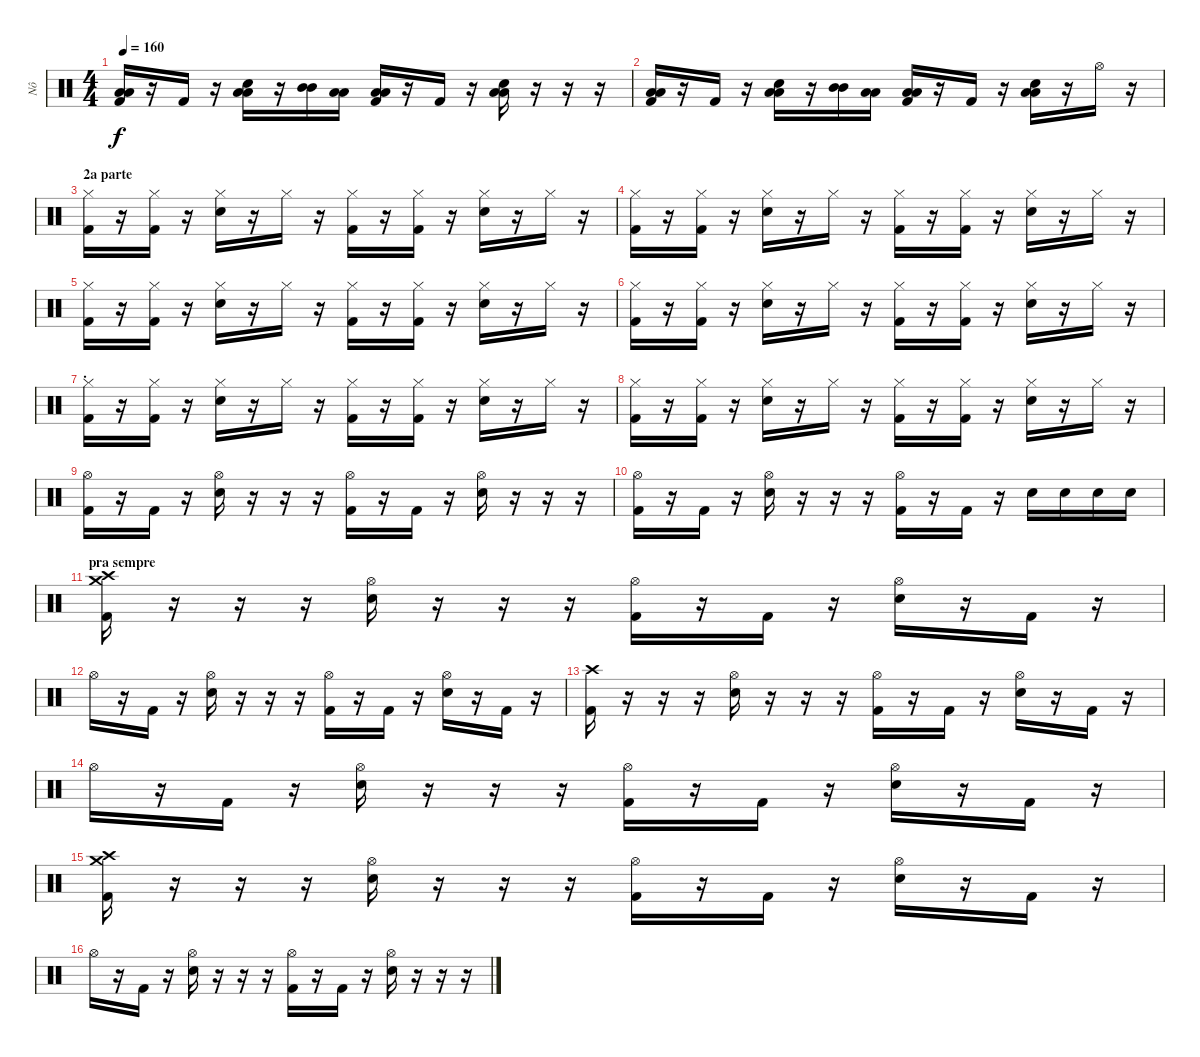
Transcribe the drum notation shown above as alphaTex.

\track ("Nô" "Nô") {instrument percussion}
\staff {score}
\articulation defaults
\ts (4 4)
\tempo 160
\clef neutral
\ks c
("Low Tom (hit)" "Low Tom (hit)" "Kick (hit) 2").16{dy f} r.16 "Kick (hit) 2".16 r.16 ("Low Tom (hit)" "Low Tom (hit)" "Electric Snare (hit)").16 r.16 ("Mid Tom (hit)" "Mid Tom (hit)").16 ("Low Tom (hit)" "Low Tom (hit)").16 ("Low Tom (hit)" "Low Tom (hit)" "Kick (hit) 2").16 r.16 "Kick (hit) 2".16 r.16 ("Low Tom (hit)" "Low Tom (hit)" "Electric Snare (hit)").16 r.16 r.16 r.16 |
("Low Tom (hit)" "Low Tom (hit)" "Kick (hit) 2").16 r.16 "Kick (hit) 2".16 r.16 ("Low Tom (hit)" "Low Tom (hit)" "Electric Snare (hit)").16 r.16 ("Mid Tom (hit)" "Mid Tom (hit)").16 ("Low Tom (hit)" "Low Tom (hit)").16 ("Low Tom (hit)" "Low Tom (hit)" "Kick (hit) 2").16 r.16 "Kick (hit) 2".16 r.16 ("Low Tom (hit)" "Low Tom (hit)" "Electric Snare (hit)").16 r.16 "Hi-Hat (open)".16 r.16 |
\section ("" "2a parte")
("Hi-Hat (closed)" "Kick (hit) 2").16 r.16 ("Hi-Hat (closed)" "Kick (hit) 2").16 r.16 ("Hi-Hat (closed)" "Electric Snare (hit)").16 r.16 "Hi-Hat (closed)".16 r.16 ("Hi-Hat (closed)" "Kick (hit) 2").16 r.16 ("Hi-Hat (closed)" "Kick (hit) 2").16 r.16 ("Hi-Hat (closed)" "Electric Snare (hit)").16 r.16 "Hi-Hat (closed)".16 r.16 |
("Hi-Hat (closed)" "Kick (hit) 2").16 r.16 ("Hi-Hat (closed)" "Kick (hit) 2").16 r.16 ("Hi-Hat (closed)" "Electric Snare (hit)").16 r.16 "Hi-Hat (closed)".16 r.16 ("Hi-Hat (closed)" "Kick (hit) 2").16 r.16 ("Hi-Hat (closed)" "Kick (hit) 2").16 r.16 ("Hi-Hat (closed)" "Electric Snare (hit)").16 r.16 "Hi-Hat (closed)".16 r.16 |
("Hi-Hat (closed)" "Kick (hit) 2").16 r.16 ("Hi-Hat (closed)" "Kick (hit) 2").16 r.16 ("Hi-Hat (closed)" "Electric Snare (hit)").16 r.16 "Hi-Hat (closed)".16 r.16 ("Hi-Hat (closed)" "Kick (hit) 2").16 r.16 ("Hi-Hat (closed)" "Kick (hit) 2").16 r.16 ("Hi-Hat (closed)" "Electric Snare (hit)").16 r.16 "Hi-Hat (closed)".16 r.16 |
("Hi-Hat (closed)" "Kick (hit) 2").16 r.16 ("Hi-Hat (closed)" "Kick (hit) 2").16 r.16 ("Hi-Hat (closed)" "Electric Snare (hit)").16 r.16 "Hi-Hat (closed)".16 r.16 ("Hi-Hat (closed)" "Kick (hit) 2").16 r.16 ("Hi-Hat (closed)" "Kick (hit) 2").16 r.16 ("Hi-Hat (closed)" "Electric Snare (hit)").16 r.16 "Hi-Hat (closed)".16 r.16 |
\section ("" ".")
("Hi-Hat (closed)" "Kick (hit) 2").16 r.16 ("Hi-Hat (closed)" "Kick (hit) 2").16 r.16 ("Hi-Hat (closed)" "Electric Snare (hit)").16 r.16 "Hi-Hat (closed)".16 r.16 ("Hi-Hat (closed)" "Kick (hit) 2").16 r.16 ("Hi-Hat (closed)" "Kick (hit) 2").16 r.16 ("Hi-Hat (closed)" "Electric Snare (hit)").16 r.16 "Hi-Hat (closed)".16 r.16 |
("Hi-Hat (closed)" "Kick (hit) 2").16 r.16 ("Hi-Hat (closed)" "Kick (hit) 2").16 r.16 ("Hi-Hat (closed)" "Electric Snare (hit)").16 r.16 "Hi-Hat (closed)".16 r.16 ("Hi-Hat (closed)" "Kick (hit) 2").16 r.16 ("Hi-Hat (closed)" "Kick (hit) 2").16 r.16 ("Hi-Hat (closed)" "Electric Snare (hit)").16 r.16 "Hi-Hat (closed)".16 r.16 |
("Hi-Hat (open)" "Kick (hit) 2").16 r.16 "Kick (hit) 2".16 r.16 ("Hi-Hat (open)" "Electric Snare (hit)").16 r.16 r.16 r.16 ("Hi-Hat (open)" "Kick (hit) 2").16 r.16 "Kick (hit) 2".16 r.16 ("Hi-Hat (open)" "Electric Snare (hit)").16 r.16 r.16 r.16 |
("Hi-Hat (open)" "Kick (hit) 2").16 r.16 "Kick (hit) 2".16 r.16 ("Hi-Hat (open)" "Electric Snare (hit)").16 r.16 r.16 r.16 ("Hi-Hat (open)" "Kick (hit) 2").16 r.16 "Kick (hit) 2".16 r.16 "Electric Snare (hit)".16 "Electric Snare (hit)".16 "Electric Snare (hit)".16 "Electric Snare (hit)".16 |
\section ("" "pra sempre")
("Crash high (hit)" "Crash medium (hit)" "Kick (hit) 2").16 r.16 r.16 r.16 ("Hi-Hat (open)" "Electric Snare (hit)").16 r.16 r.16 r.16 ("Hi-Hat (open)" "Kick (hit) 2").16 r.16 "Kick (hit) 2".16 r.16 ("Hi-Hat (open)" "Electric Snare (hit)").16 r.16 "Kick (hit) 2".16 r.16 |
"Hi-Hat (open)".16 r.16 "Kick (hit) 2".16 r.16 ("Hi-Hat (open)" "Electric Snare (hit)").16 r.16 r.16 r.16 ("Hi-Hat (open)" "Kick (hit) 2").16 r.16 "Kick (hit) 2".16 r.16 ("Hi-Hat (open)" "Electric Snare (hit)").16 r.16 "Kick (hit) 2".16 r.16 |
("Crash high (hit)" "Kick (hit) 2").16 r.16 r.16 r.16 ("Hi-Hat (open)" "Electric Snare (hit)").16 r.16 r.16 r.16 ("Hi-Hat (open)" "Kick (hit) 2").16 r.16 "Kick (hit) 2".16 r.16 ("Hi-Hat (open)" "Electric Snare (hit)").16 r.16 "Kick (hit) 2".16 r.16 |
"Hi-Hat (open)".16 r.16 "Kick (hit) 2".16 r.16 ("Hi-Hat (open)" "Electric Snare (hit)").16 r.16 r.16 r.16 ("Hi-Hat (open)" "Kick (hit) 2").16 r.16 "Kick (hit) 2".16 r.16 ("Hi-Hat (open)" "Electric Snare (hit)").16 r.16 "Kick (hit) 2".16 r.16 |
("Crash high (hit)" "Crash medium (hit)" "Kick (hit) 2").16 r.16 r.16 r.16 ("Hi-Hat (open)" "Electric Snare (hit)").16 r.16 r.16 r.16 ("Hi-Hat (open)" "Kick (hit) 2").16 r.16 "Kick (hit) 2".16 r.16 ("Hi-Hat (open)" "Electric Snare (hit)").16 r.16 "Kick (hit) 2".16 r.16 |
"Hi-Hat (open)".16 r.16 "Kick (hit) 2".16 r.16 ("Hi-Hat (open)" "Electric Snare (hit)").16 r.16 r.16 r.16 ("Hi-Hat (open)" "Kick (hit) 2").16 r.16 "Kick (hit) 2".16 r.16 ("Hi-Hat (open)" "Electric Snare (hit)").16 r.16 r.16 r.16
